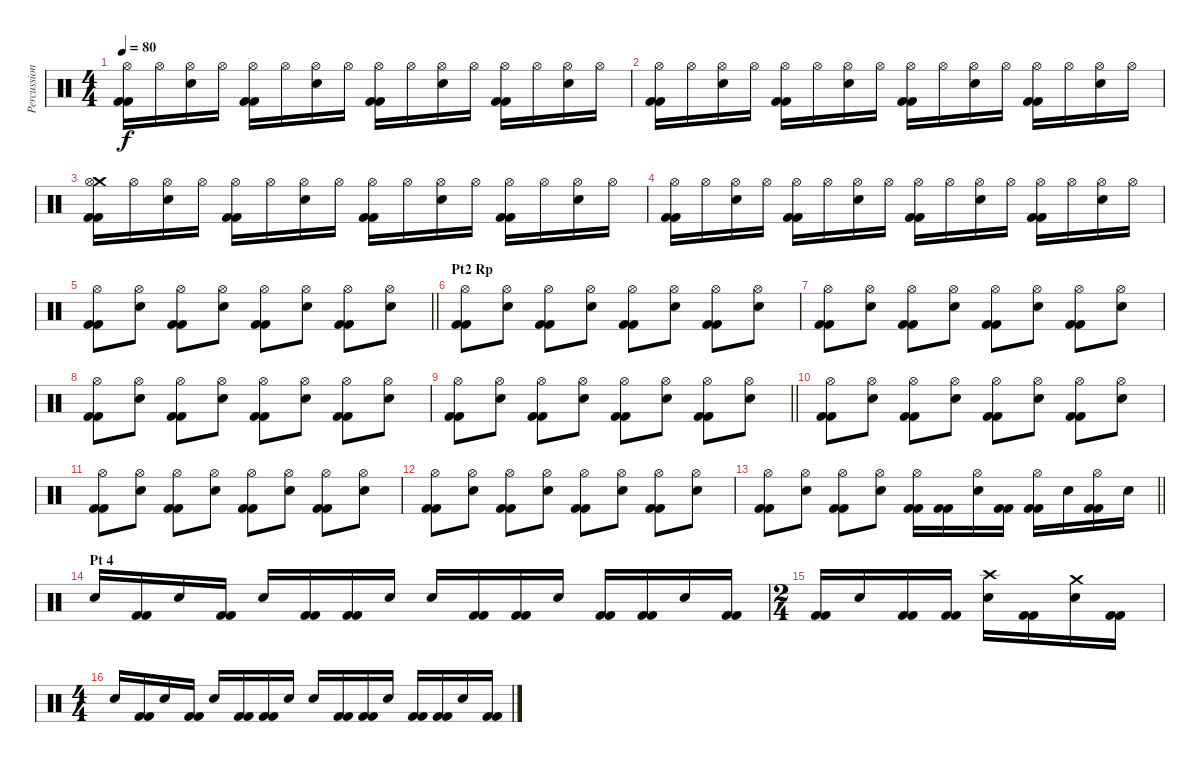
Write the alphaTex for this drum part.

\track ("Percussion" "Percussion") {instrument percussion}
\staff {score}
\articulation defaults
\ts (4 4)
\tempo 80
\clef neutral
\ks c
("Hi-Hat (open)" "Kick (hit) 2" "Kick (hit) 2").16{dy f} "Hi-Hat (open)".16 ("Hi-Hat (open)" "Electric Snare (hit)").16 "Hi-Hat (open)".16 ("Hi-Hat (open)" "Kick (hit) 2" "Kick (hit) 2").16 "Hi-Hat (open)".16 ("Hi-Hat (open)" "Electric Snare (hit)").16 "Hi-Hat (open)".16 ("Hi-Hat (open)" "Kick (hit) 2" "Kick (hit) 2").16 "Hi-Hat (open)".16 ("Hi-Hat (open)" "Electric Snare (hit)").16 "Hi-Hat (open)".16 ("Hi-Hat (open)" "Kick (hit) 2" "Kick (hit) 2").16 "Hi-Hat (open)".16 ("Hi-Hat (open)" "Electric Snare (hit)").16 "Hi-Hat (open)".16 |
("Hi-Hat (open)" "Kick (hit) 2" "Kick (hit) 2").16 "Hi-Hat (open)".16 ("Hi-Hat (open)" "Electric Snare (hit)").16 "Hi-Hat (open)".16 ("Hi-Hat (open)" "Kick (hit) 2" "Kick (hit) 2").16 "Hi-Hat (open)".16 ("Hi-Hat (open)" "Electric Snare (hit)").16 "Hi-Hat (open)".16 ("Hi-Hat (open)" "Kick (hit) 2" "Kick (hit) 2").16 "Hi-Hat (open)".16 ("Hi-Hat (open)" "Electric Snare (hit)").16 "Hi-Hat (open)".16 ("Hi-Hat (open)" "Kick (hit) 2" "Kick (hit) 2").16 "Hi-Hat (open)".16 ("Hi-Hat (open)" "Electric Snare (hit)").16 "Hi-Hat (open)".16 |
("Crash medium (hit)" "Hi-Hat (open)" "Kick (hit) 2" "Kick (hit) 2").16 "Hi-Hat (open)".16 ("Hi-Hat (open)" "Electric Snare (hit)").16 "Hi-Hat (open)".16 ("Hi-Hat (open)" "Kick (hit) 2" "Kick (hit) 2").16 "Hi-Hat (open)".16 ("Hi-Hat (open)" "Electric Snare (hit)").16 "Hi-Hat (open)".16 ("Hi-Hat (open)" "Kick (hit) 2" "Kick (hit) 2").16 "Hi-Hat (open)".16 ("Hi-Hat (open)" "Electric Snare (hit)").16 "Hi-Hat (open)".16 ("Hi-Hat (open)" "Kick (hit) 2" "Kick (hit) 2").16 "Hi-Hat (open)".16 ("Hi-Hat (open)" "Electric Snare (hit)").16 "Hi-Hat (open)".16 |
("Hi-Hat (open)" "Kick (hit) 2" "Kick (hit) 2").16 "Hi-Hat (open)".16 ("Hi-Hat (open)" "Electric Snare (hit)").16 "Hi-Hat (open)".16 ("Hi-Hat (open)" "Kick (hit) 2" "Kick (hit) 2").16 "Hi-Hat (open)".16 ("Hi-Hat (open)" "Electric Snare (hit)").16 "Hi-Hat (open)".16 ("Hi-Hat (open)" "Kick (hit) 2" "Kick (hit) 2").16 "Hi-Hat (open)".16 ("Hi-Hat (open)" "Electric Snare (hit)").16 "Hi-Hat (open)".16 ("Hi-Hat (open)" "Kick (hit) 2" "Kick (hit) 2").16 "Hi-Hat (open)".16 ("Hi-Hat (open)" "Electric Snare (hit)").16 "Hi-Hat (open)".16 |
\barLineRight lightlight
("Hi-Hat (open)" "Kick (hit) 2" "Kick (hit) 2").8 ("Hi-Hat (open)" "Electric Snare (hit)").8 ("Hi-Hat (open)" "Kick (hit) 2" "Kick (hit) 2").8 ("Hi-Hat (open)" "Electric Snare (hit)").8 ("Hi-Hat (open)" "Kick (hit) 2" "Kick (hit) 2").8 ("Hi-Hat (open)" "Electric Snare (hit)").8 ("Hi-Hat (open)" "Kick (hit) 2" "Kick (hit) 2").8 ("Hi-Hat (open)" "Electric Snare (hit)").8 |
\section ("" "Pt2 Rp")
("Hi-Hat (open)" "Kick (hit) 2" "Kick (hit) 2").8 ("Hi-Hat (open)" "Electric Snare (hit)").8 ("Hi-Hat (open)" "Kick (hit) 2" "Kick (hit) 2").8 ("Hi-Hat (open)" "Electric Snare (hit)").8 ("Hi-Hat (open)" "Kick (hit) 2" "Kick (hit) 2").8 ("Hi-Hat (open)" "Electric Snare (hit)").8 ("Hi-Hat (open)" "Kick (hit) 2" "Kick (hit) 2").8 ("Hi-Hat (open)" "Electric Snare (hit)").8 |
("Hi-Hat (open)" "Kick (hit) 2" "Kick (hit) 2").8 ("Hi-Hat (open)" "Electric Snare (hit)").8 ("Hi-Hat (open)" "Kick (hit) 2" "Kick (hit) 2").8 ("Hi-Hat (open)" "Electric Snare (hit)").8 ("Hi-Hat (open)" "Kick (hit) 2" "Kick (hit) 2").8 ("Hi-Hat (open)" "Electric Snare (hit)").8 ("Hi-Hat (open)" "Kick (hit) 2" "Kick (hit) 2").8 ("Hi-Hat (open)" "Electric Snare (hit)").8 |
("Hi-Hat (open)" "Kick (hit) 2" "Kick (hit) 2").8 ("Hi-Hat (open)" "Electric Snare (hit)").8 ("Hi-Hat (open)" "Kick (hit) 2" "Kick (hit) 2").8 ("Hi-Hat (open)" "Electric Snare (hit)").8 ("Hi-Hat (open)" "Kick (hit) 2" "Kick (hit) 2").8 ("Hi-Hat (open)" "Electric Snare (hit)").8 ("Hi-Hat (open)" "Kick (hit) 2" "Kick (hit) 2").8 ("Hi-Hat (open)" "Electric Snare (hit)").8 |
\barLineRight lightlight
("Hi-Hat (open)" "Kick (hit) 2" "Kick (hit) 2").8 ("Hi-Hat (open)" "Electric Snare (hit)").8 ("Hi-Hat (open)" "Kick (hit) 2" "Kick (hit) 2").8 ("Hi-Hat (open)" "Electric Snare (hit)").8 ("Hi-Hat (open)" "Kick (hit) 2" "Kick (hit) 2").8 ("Hi-Hat (open)" "Electric Snare (hit)").8 ("Hi-Hat (open)" "Kick (hit) 2" "Kick (hit) 2").8 ("Hi-Hat (open)" "Electric Snare (hit)").8 |
("Hi-Hat (open)" "Kick (hit) 2" "Kick (hit) 2").8 ("Hi-Hat (open)" "Electric Snare (hit)").8 ("Hi-Hat (open)" "Kick (hit) 2" "Kick (hit) 2").8 ("Hi-Hat (open)" "Electric Snare (hit)").8 ("Hi-Hat (open)" "Kick (hit) 2" "Kick (hit) 2").8 ("Hi-Hat (open)" "Electric Snare (hit)").8 ("Hi-Hat (open)" "Kick (hit) 2" "Kick (hit) 2").8 ("Hi-Hat (open)" "Electric Snare (hit)").8 |
("Hi-Hat (open)" "Kick (hit) 2" "Kick (hit) 2").8 ("Hi-Hat (open)" "Electric Snare (hit)").8 ("Hi-Hat (open)" "Kick (hit) 2" "Kick (hit) 2").8 ("Hi-Hat (open)" "Electric Snare (hit)").8 ("Hi-Hat (open)" "Kick (hit) 2" "Kick (hit) 2").8 ("Hi-Hat (open)" "Electric Snare (hit)").8 ("Hi-Hat (open)" "Kick (hit) 2" "Kick (hit) 2").8 ("Hi-Hat (open)" "Electric Snare (hit)").8 |
("Hi-Hat (open)" "Kick (hit) 2" "Kick (hit) 2").8 ("Hi-Hat (open)" "Electric Snare (hit)").8 ("Hi-Hat (open)" "Kick (hit) 2" "Kick (hit) 2").8 ("Hi-Hat (open)" "Electric Snare (hit)").8 ("Hi-Hat (open)" "Kick (hit) 2" "Kick (hit) 2").8 ("Hi-Hat (open)" "Electric Snare (hit)").8 ("Hi-Hat (open)" "Kick (hit) 2" "Kick (hit) 2").8 ("Hi-Hat (open)" "Electric Snare (hit)").8 |
\barLineRight lightlight
("Hi-Hat (open)" "Kick (hit) 2" "Kick (hit) 2").8 ("Hi-Hat (open)" "Electric Snare (hit)").8 ("Hi-Hat (open)" "Kick (hit) 2" "Kick (hit) 2").8 ("Hi-Hat (open)" "Electric Snare (hit)").8 ("Hi-Hat (open)" "Kick (hit) 2" "Kick (hit) 2").16 ("Kick (hit) 2" "Kick (hit) 2").16 ("Hi-Hat (open)" "Electric Snare (hit)").16 ("Kick (hit) 2" "Kick (hit) 2").16 ("Hi-Hat (open)" "Kick (hit) 2" "Kick (hit) 2").16 "Electric Snare (hit)".16 ("Hi-Hat (open)" "Kick (hit) 2" "Kick (hit) 2").16 "Electric Snare (hit)".16 |
\section ("" "Pt 4")
"Electric Snare (hit)".16 ("Kick (hit) 2" "Kick (hit) 2").16 "Electric Snare (hit)".16 ("Kick (hit) 2" "Kick (hit) 2").16 "Electric Snare (hit)".16 ("Kick (hit) 2" "Kick (hit) 2").16 ("Kick (hit) 2" "Kick (hit) 2").16 "Electric Snare (hit)".16 "Electric Snare (hit)".16 ("Kick (hit) 2" "Kick (hit) 2").16 ("Kick (hit) 2" "Kick (hit) 2").16 "Electric Snare (hit)".16 ("Kick (hit) 2" "Kick (hit) 2").16 ("Kick (hit) 2" "Kick (hit) 2").16 "Electric Snare (hit)".16 ("Kick (hit) 2" "Kick (hit) 2").16 |
\ts (2 4)
("Kick (hit) 2" "Kick (hit) 2").16 "Electric Snare (hit)".16 ("Kick (hit) 2" "Kick (hit) 2").16 ("Kick (hit) 2" "Kick (hit) 2").16 ("Crash high (hit)" "Electric Snare (hit)").16 ("Kick (hit) 2" "Kick (hit) 2").16 ("Crash medium (hit)" "Electric Snare (hit)").16 ("Kick (hit) 2" "Kick (hit) 2").16 |
\ts (4 4)
"Electric Snare (hit)".16 ("Kick (hit) 2" "Kick (hit) 2").16 "Electric Snare (hit)".16 ("Kick (hit) 2" "Kick (hit) 2").16 "Electric Snare (hit)".16 ("Kick (hit) 2" "Kick (hit) 2").16 ("Kick (hit) 2" "Kick (hit) 2").16 "Electric Snare (hit)".16 "Electric Snare (hit)".16 ("Kick (hit) 2" "Kick (hit) 2").16 ("Kick (hit) 2" "Kick (hit) 2").16 "Electric Snare (hit)".16 ("Kick (hit) 2" "Kick (hit) 2").16 ("Kick (hit) 2" "Kick (hit) 2").16 "Electric Snare (hit)".16 ("Kick (hit) 2" "Kick (hit) 2").16
